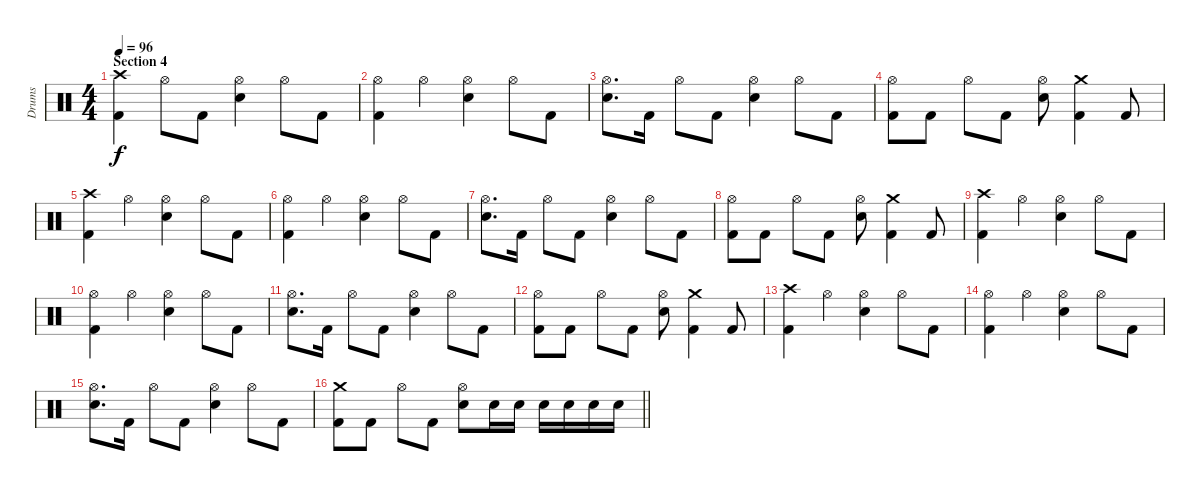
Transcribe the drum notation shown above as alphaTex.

\track ("Drums" "Drums") {instrument percussion}
\staff {score}
\articulation defaults
\ts (4 4)
\section ("" "Section 4")
\tempo 96
\clef neutral
\ks c
("Crash high (hit)" "Kick (hit) 2").4{dy f} "Hi-Hat (open)".8 "Kick (hit) 2".8 ("Hi-Hat (open)" "Electric Snare (hit)").4 "Hi-Hat (open)".8 "Kick (hit) 2".8 |
("Hi-Hat (open)" "Kick (hit) 2").4 "Hi-Hat (open)".4 ("Hi-Hat (open)" "Electric Snare (hit)").4 "Hi-Hat (open)".8 "Kick (hit) 2".8 |
("Hi-Hat (open)" "Electric Snare (hit)").8{d} "Kick (hit) 2".16 "Hi-Hat (open)".8 "Kick (hit) 2".8 ("Hi-Hat (open)" "Electric Snare (hit)").4 "Hi-Hat (open)".8 "Kick (hit) 2".8 |
("Hi-Hat (open)" "Kick (hit) 2").8 "Kick (hit) 2".8 "Hi-Hat (open)".8 "Kick (hit) 2".8 ("Hi-Hat (open)" "Electric Snare (hit)").8 ("Crash medium (hit)" "Kick (hit) 2").4 "Kick (hit) 2".8 |
("Crash high (hit)" "Kick (hit) 2").4 "Hi-Hat (open)".4 ("Hi-Hat (open)" "Electric Snare (hit)").4 "Hi-Hat (open)".8 "Kick (hit) 2".8 |
("Hi-Hat (open)" "Kick (hit) 2").4 "Hi-Hat (open)".4 ("Hi-Hat (open)" "Electric Snare (hit)").4 "Hi-Hat (open)".8 "Kick (hit) 2".8 |
("Hi-Hat (open)" "Electric Snare (hit)").8{d} "Kick (hit) 2".16 "Hi-Hat (open)".8 "Kick (hit) 2".8 ("Hi-Hat (open)" "Electric Snare (hit)").4 "Hi-Hat (open)".8 "Kick (hit) 2".8 |
("Hi-Hat (open)" "Kick (hit) 2").8 "Kick (hit) 2".8 "Hi-Hat (open)".8 "Kick (hit) 2".8 ("Hi-Hat (open)" "Electric Snare (hit)").8 ("Crash medium (hit)" "Kick (hit) 2").4 "Kick (hit) 2".8 |
("Crash high (hit)" "Kick (hit) 2").4 "Hi-Hat (open)".4 ("Hi-Hat (open)" "Electric Snare (hit)").4 "Hi-Hat (open)".8 "Kick (hit) 2".8 |
("Hi-Hat (open)" "Kick (hit) 2").4 "Hi-Hat (open)".4 ("Hi-Hat (open)" "Electric Snare (hit)").4 "Hi-Hat (open)".8 "Kick (hit) 2".8 |
("Hi-Hat (open)" "Electric Snare (hit)").8{d} "Kick (hit) 2".16 "Hi-Hat (open)".8 "Kick (hit) 2".8 ("Hi-Hat (open)" "Electric Snare (hit)").4 "Hi-Hat (open)".8 "Kick (hit) 2".8 |
("Hi-Hat (open)" "Kick (hit) 2").8 "Kick (hit) 2".8 "Hi-Hat (open)".8 "Kick (hit) 2".8 ("Hi-Hat (open)" "Electric Snare (hit)").8 ("Crash medium (hit)" "Kick (hit) 2").4 "Kick (hit) 2".8 |
("Crash high (hit)" "Kick (hit) 2").4 "Hi-Hat (open)".4 ("Hi-Hat (open)" "Electric Snare (hit)").4 "Hi-Hat (open)".8 "Kick (hit) 2".8 |
("Hi-Hat (open)" "Kick (hit) 2").4 "Hi-Hat (open)".4 ("Hi-Hat (open)" "Electric Snare (hit)").4 "Hi-Hat (open)".8 "Kick (hit) 2".8 |
("Hi-Hat (open)" "Electric Snare (hit)").8{d} "Kick (hit) 2".16 "Hi-Hat (open)".8 "Kick (hit) 2".8 ("Hi-Hat (open)" "Electric Snare (hit)").4 "Hi-Hat (open)".8 "Kick (hit) 2".8 |
\barLineRight lightlight
("Crash medium (hit)" "Kick (hit) 2").8 "Kick (hit) 2".8 "Hi-Hat (open)".8 "Kick (hit) 2".8 ("Hi-Hat (open)" "Electric Snare (hit)").8 "Electric Snare (hit)".16 "Electric Snare (hit)".16 "Electric Snare (hit)".16 "Electric Snare (hit)".16 "Electric Snare (hit)".16 "Electric Snare (hit)".16
